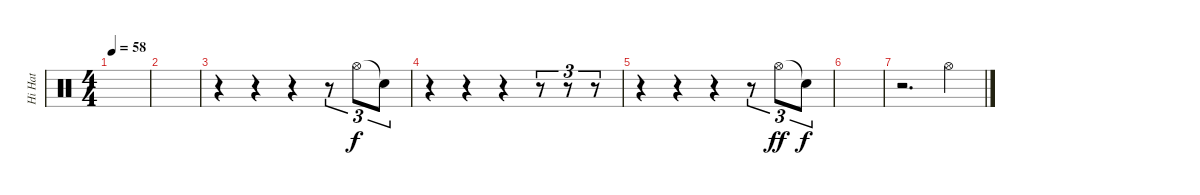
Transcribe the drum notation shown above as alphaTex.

\track ("Hi Hat" "Hi Hat") {instrument percussion}
\staff {score}
\articulation defaults
\ts (4 4)
\tempo 58
\clef neutral
\ks c
|
|
r.4 r.4 r.4 r.8{tu (3 2)} "Hi-Hat (open)".8{tu (3 2)} "Snare (hit)"{t}.8{tu (3 2)} |
r.4 r.4 r.4 r.8{tu (3 2)} r.8{tu (3 2)} r.8{tu (3 2)} |
r.4 r.4 r.4 r.8{tu (3 2)} "Hi-Hat (open)".8{tu (3 2) dy ff} "Snare (hit)"{t}.8{tu (3 2) dy f} |
|
r.2{d} "Hi-Hat (open)".4
